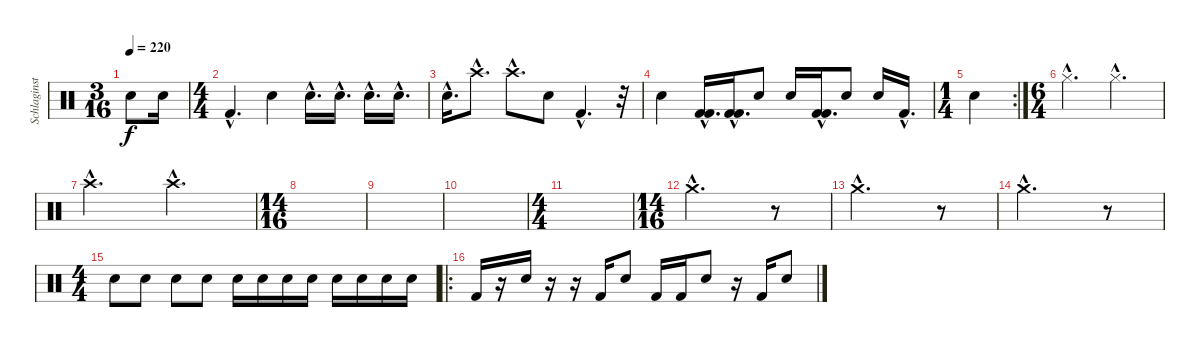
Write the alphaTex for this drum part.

\track ("Schlaginstrumente - Auswahl" "Schlaginst") {instrument percussion}
\staff {score}
\articulation defaults
\ts (3 16)
\tempo 220
\clef neutral
\ks c "Snare (hit) 2".8{dy f} "Snare (hit) 2".16
|
\ts (4 4)
"Kick (hit) 2"{hac}.4{d} "Snare (hit) 2".4 "Snare (hit) 2"{hac}.16{d} "Snare (hit) 2"{hac}.16{d} "Snare (hit) 2"{hac}.16{d} "Snare (hit) 2"{hac}.16{d} |
"Snare (hit) 2"{hac}.16{d} "Crash high (hit)"{hac}.8{d} "Crash high (hit)"{hac}.8{d} "Snare (hit) 2".8 "Kick (hit) 2"{hac}.4{d} r.32 |
"Snare (hit) 2".4 ("Kick (hit) 2"{hac} "Kick (hit) 2"{hac}).16{d} ("Kick (hit) 2"{hac} "Kick (hit) 2"{hac}).16{d} "Snare (hit) 2".8 "Snare (hit) 2".16 ("Kick (hit) 2"{hac} "Kick (hit) 2"{hac}).16{d} "Snare (hit) 2".8 "Snare (hit) 2".16 "Kick (hit) 2"{hac}.16{d} |
\rc 2
\ts (1 4)
"Snare (hit) 2".4 |
\ts (6 4)
"Hi-Hat (closed)"{hac}.2{d} "Hi-Hat (closed)"{hac}.2{d} |
"Crash high (hit)"{hac}.2{d} "Crash high (hit)"{hac}.2{d} |
\ts (14 16)
|
|
|
\ts (4 4)
|
\ts (14 16)
"Crash medium (hit)"{hac}.2{d} r.8 |
"Crash medium (hit)"{hac}.2{d} r.8 |
"Crash medium (hit)"{hac}.2{d} r.8 |
\ts (4 4)
"Snare (hit) 2".8 "Snare (hit) 2".8 "Snare (hit) 2".8 "Snare (hit) 2".8 "Snare (hit) 2".16 "Snare (hit) 2".16 "Snare (hit) 2".16 "Snare (hit) 2".16 "Snare (hit) 2".16 "Snare (hit) 2".16 "Snare (hit) 2".16 "Snare (hit) 2".16 |
\ro "Kick (hit) 2".16
r.16 "Snare (hit) 2".16 r.16 r.16 "Kick (hit) 2".16 "Snare (hit) 2".8 "Kick (hit) 2".16 "Kick (hit) 2".16 "Snare (hit) 2".8 r.16 "Kick (hit) 2".16 "Snare (hit) 2".8
